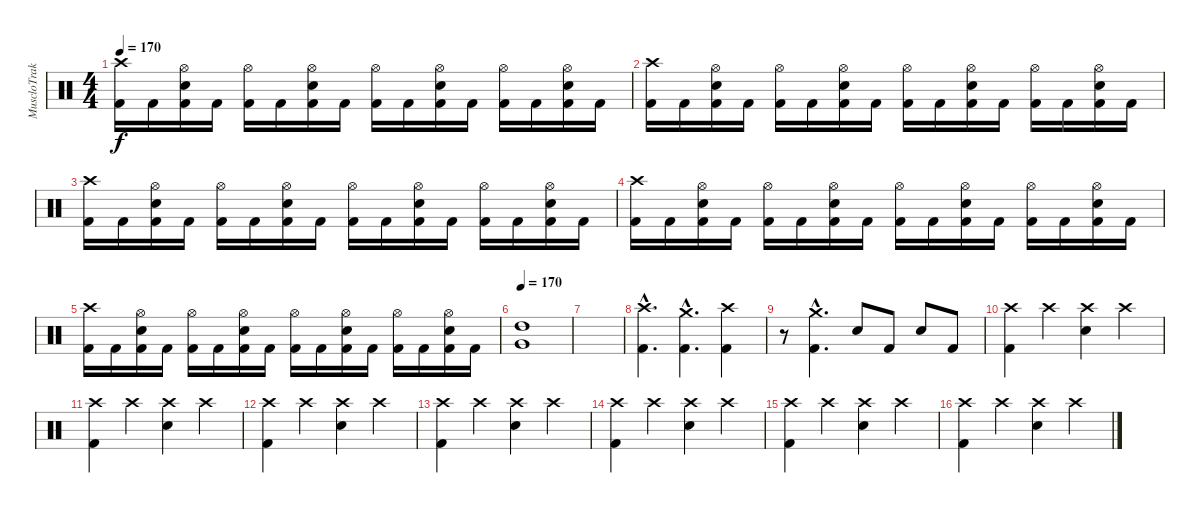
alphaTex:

\track ("MuscloTraktor" "MuscloTrak") {instrument percussion}
\staff {score}
\articulation defaults
\ts (4 4)
\tempo 170
\clef neutral
\ks c
("Kick (hit) 2" "Crash high (hit)").16{dy f} "Kick (hit) 2".16 ("Kick (hit) 2" "Electric Snare (hit)" "Hi-Hat (open)").16 "Kick (hit) 2".16 ("Kick (hit) 2" "Hi-Hat (open)").16 "Kick (hit) 2".16 ("Kick (hit) 2" "Electric Snare (hit)" "Hi-Hat (open)").16 "Kick (hit) 2".16 ("Kick (hit) 2" "Hi-Hat (open)").16 "Kick (hit) 2".16 ("Kick (hit) 2" "Electric Snare (hit)" "Hi-Hat (open)").16 "Kick (hit) 2".16 ("Kick (hit) 2" "Hi-Hat (open)").16 "Kick (hit) 2".16 ("Kick (hit) 2" "Electric Snare (hit)" "Hi-Hat (open)").16 "Kick (hit) 2".16 |
("Kick (hit) 2" "Crash high (hit)").16 "Kick (hit) 2".16 ("Kick (hit) 2" "Electric Snare (hit)" "Hi-Hat (open)").16 "Kick (hit) 2".16 ("Kick (hit) 2" "Hi-Hat (open)").16 "Kick (hit) 2".16 ("Kick (hit) 2" "Electric Snare (hit)" "Hi-Hat (open)").16 "Kick (hit) 2".16 ("Kick (hit) 2" "Hi-Hat (open)").16 "Kick (hit) 2".16 ("Kick (hit) 2" "Electric Snare (hit)" "Hi-Hat (open)").16 "Kick (hit) 2".16 ("Kick (hit) 2" "Hi-Hat (open)").16 "Kick (hit) 2".16 ("Kick (hit) 2" "Electric Snare (hit)" "Hi-Hat (open)").16 "Kick (hit) 2".16 |
("Kick (hit) 2" "Crash high (hit)").16 "Kick (hit) 2".16 ("Kick (hit) 2" "Electric Snare (hit)" "Hi-Hat (open)").16 "Kick (hit) 2".16 ("Kick (hit) 2" "Hi-Hat (open)").16 "Kick (hit) 2".16 ("Kick (hit) 2" "Electric Snare (hit)" "Hi-Hat (open)").16 "Kick (hit) 2".16 ("Kick (hit) 2" "Hi-Hat (open)").16 "Kick (hit) 2".16 ("Kick (hit) 2" "Electric Snare (hit)" "Hi-Hat (open)").16 "Kick (hit) 2".16 ("Kick (hit) 2" "Hi-Hat (open)").16 "Kick (hit) 2".16 ("Kick (hit) 2" "Electric Snare (hit)" "Hi-Hat (open)").16 "Kick (hit) 2".16 |
("Kick (hit) 2" "Crash high (hit)").16 "Kick (hit) 2".16 ("Kick (hit) 2" "Electric Snare (hit)" "Hi-Hat (open)").16 "Kick (hit) 2".16 ("Kick (hit) 2" "Hi-Hat (open)").16 "Kick (hit) 2".16 ("Kick (hit) 2" "Electric Snare (hit)" "Hi-Hat (open)").16 "Kick (hit) 2".16 ("Kick (hit) 2" "Hi-Hat (open)").16 "Kick (hit) 2".16 ("Kick (hit) 2" "Electric Snare (hit)" "Hi-Hat (open)").16 "Kick (hit) 2".16 ("Kick (hit) 2" "Hi-Hat (open)").16 "Kick (hit) 2".16 ("Kick (hit) 2" "Electric Snare (hit)" "Hi-Hat (open)").16 "Kick (hit) 2".16 |
("Kick (hit) 2" "Crash high (hit)").16 "Kick (hit) 2".16 ("Kick (hit) 2" "Electric Snare (hit)" "Hi-Hat (open)").16 "Kick (hit) 2".16 ("Kick (hit) 2" "Hi-Hat (open)").16 "Kick (hit) 2".16 ("Kick (hit) 2" "Electric Snare (hit)" "Hi-Hat (open)").16 "Kick (hit) 2".16 ("Kick (hit) 2" "Hi-Hat (open)").16 "Kick (hit) 2".16 ("Kick (hit) 2" "Electric Snare (hit)" "Hi-Hat (open)").16 "Kick (hit) 2".16 ("Kick (hit) 2" "Hi-Hat (open)").16 "Kick (hit) 2".16 ("Kick (hit) 2" "Electric Snare (hit)" "Hi-Hat (open)").16 "Kick (hit) 2".16 |
\tempo 170
("Very Low Tom (hit)" "High Tom (hit)").1 |
|
("Kick (hit) 2"{hac} "Crash high (hit)"{hac}).4{d} ("Kick (hit) 2"{hac} "Crash medium (hit)"{hac}).4{d} ("Kick (hit) 2" "Crash high (hit)").4 |
r.8 ("Kick (hit) 2"{hac} "Crash medium (hit)"{hac}).4{d} "Electric Snare (hit)".8 "Kick (hit) 2".8 "Electric Snare (hit)".8 "Kick (hit) 2".8 |
("Kick (hit) 2" "Crash high (hit)").4 "Crash high (hit)".4 ("Electric Snare (hit)" "Crash high (hit)").4 "Crash high (hit)".4 |
("Kick (hit) 2" "Crash high (hit)").4 "Crash high (hit)".4 ("Electric Snare (hit)" "Crash high (hit)").4 "Crash high (hit)".4 |
("Kick (hit) 2" "Crash high (hit)").4 "Crash high (hit)".4 ("Electric Snare (hit)" "Crash high (hit)").4 "Crash high (hit)".4 |
("Kick (hit) 2" "Crash high (hit)").4 "Crash high (hit)".4 ("Electric Snare (hit)" "Crash high (hit)").4 "Crash high (hit)".4 |
("Kick (hit) 2" "Crash high (hit)").4 "Crash high (hit)".4 ("Electric Snare (hit)" "Crash high (hit)").4 "Crash high (hit)".4 |
("Kick (hit) 2" "Crash high (hit)").4 "Crash high (hit)".4 ("Electric Snare (hit)" "Crash high (hit)").4 "Crash high (hit)".4 |
("Kick (hit) 2" "Crash high (hit)").4 "Crash high (hit)".4 ("Electric Snare (hit)" "Crash high (hit)").4 "Crash high (hit)".4
